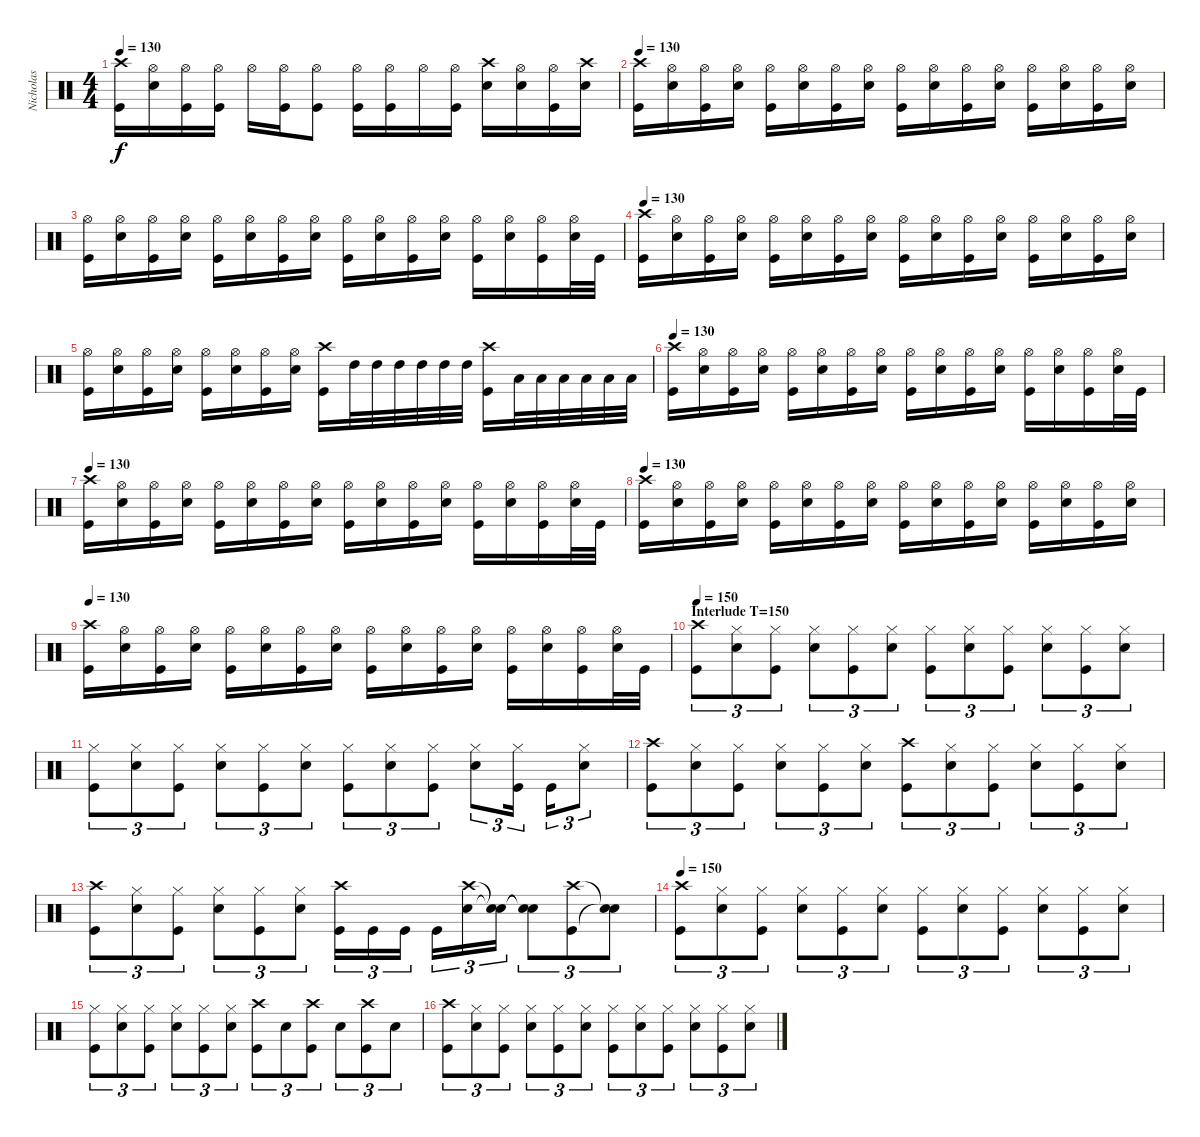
\track ("Nicholas" "Nicholas") {instrument percussion}
\staff {score}
\articulation defaults
\ts (4 4)
\tempo 130
\clef neutral
\ks c
("Crash high (hit)" "Kick (hit)").16{dy f} ("Hi-Hat (open)" "Electric Snare (hit)").16 ("Hi-Hat (open)" "Kick (hit)").16 ("Hi-Hat (open)" "Kick (hit)").16 "Hi-Hat (open)".16 ("Hi-Hat (open)" "Kick (hit)").16 ("Hi-Hat (open)" "Kick (hit)").8 ("Hi-Hat (open)" "Kick (hit)").16 ("Hi-Hat (open)" "Kick (hit)").16 "Hi-Hat (open)".16 ("Hi-Hat (open)" "Kick (hit)").16 ("Crash high (hit)" "Electric Snare (hit)").16 ("Hi-Hat (open)" "Electric Snare (hit)").16 ("Hi-Hat (open)" "Kick (hit)").16 ("Crash high (hit)" "Electric Snare (hit)").16 |
\tempo 130
("Crash high (hit)" "Kick (hit)").16 ("Hi-Hat (open)" "Electric Snare (hit)").16 ("Hi-Hat (open)" "Kick (hit)").16 ("Hi-Hat (open)" "Electric Snare (hit)").16 ("Hi-Hat (open)" "Kick (hit)").16 ("Hi-Hat (open)" "Electric Snare (hit)").16 ("Hi-Hat (open)" "Kick (hit)").16 ("Hi-Hat (open)" "Electric Snare (hit)").16 ("Hi-Hat (open)" "Kick (hit)").16 ("Hi-Hat (open)" "Electric Snare (hit)").16 ("Hi-Hat (open)" "Kick (hit)").16 ("Hi-Hat (open)" "Electric Snare (hit)").16 ("Hi-Hat (open)" "Kick (hit)").16 ("Hi-Hat (open)" "Electric Snare (hit)").16 ("Hi-Hat (open)" "Kick (hit)").16 ("Hi-Hat (open)" "Electric Snare (hit)").16 |
("Hi-Hat (open)" "Kick (hit)").16 ("Hi-Hat (open)" "Electric Snare (hit)").16 ("Hi-Hat (open)" "Kick (hit)").16 ("Hi-Hat (open)" "Electric Snare (hit)").16 ("Hi-Hat (open)" "Kick (hit)").16 ("Hi-Hat (open)" "Electric Snare (hit)").16 ("Hi-Hat (open)" "Kick (hit)").16 ("Hi-Hat (open)" "Electric Snare (hit)").16 ("Hi-Hat (open)" "Kick (hit)").16 ("Hi-Hat (open)" "Electric Snare (hit)").16 ("Hi-Hat (open)" "Kick (hit)").16 ("Hi-Hat (open)" "Electric Snare (hit)").16 ("Hi-Hat (open)" "Kick (hit)").16 ("Hi-Hat (open)" "Electric Snare (hit)").16 ("Hi-Hat (open)" "Kick (hit)").16 ("Hi-Hat (open)" "Electric Snare (hit)").32 "Kick (hit)".32 |
\tempo 130
("Crash high (hit)" "Kick (hit)").16 ("Hi-Hat (open)" "Electric Snare (hit)").16 ("Hi-Hat (open)" "Kick (hit)").16 ("Hi-Hat (open)" "Electric Snare (hit)").16 ("Hi-Hat (open)" "Kick (hit)").16 ("Hi-Hat (open)" "Electric Snare (hit)").16 ("Hi-Hat (open)" "Kick (hit)").16 ("Hi-Hat (open)" "Electric Snare (hit)").16 ("Hi-Hat (open)" "Kick (hit)").16 ("Hi-Hat (open)" "Electric Snare (hit)").16 ("Hi-Hat (open)" "Kick (hit)").16 ("Hi-Hat (open)" "Electric Snare (hit)").16 ("Hi-Hat (open)" "Kick (hit)").16 ("Hi-Hat (open)" "Electric Snare (hit)").16 ("Hi-Hat (open)" "Kick (hit)").16 ("Hi-Hat (open)" "Electric Snare (hit)").16 |
("Hi-Hat (open)" "Kick (hit)").16 ("Hi-Hat (open)" "Electric Snare (hit)").16 ("Hi-Hat (open)" "Kick (hit)").16 ("Hi-Hat (open)" "Electric Snare (hit)").16 ("Hi-Hat (open)" "Kick (hit)").16 ("Hi-Hat (open)" "Electric Snare (hit)").16 ("Hi-Hat (open)" "Kick (hit)").16 ("Hi-Hat (open)" "Electric Snare (hit)").16 ("Crash high (hit)" "Kick (hit)").16 "High Tom (hit)".32 "High Tom (hit)".32 "High Tom (hit)".32 "High Tom (hit)".32 "High Tom (hit)".32 "High Tom (hit)".32 ("Crash high (hit)" "Kick (hit)").16 "Low Tom (hit)".32 "Low Tom (hit)".32 "Low Tom (hit)".32 "Low Tom (hit)".32 "Low Tom (hit)".32 "Low Tom (hit)".32 |
\tempo 130
("Crash high (hit)" "Kick (hit)").16 ("Hi-Hat (open)" "Electric Snare (hit)").16 ("Hi-Hat (open)" "Kick (hit)").16 ("Hi-Hat (open)" "Electric Snare (hit)").16 ("Hi-Hat (open)" "Kick (hit)").16 ("Hi-Hat (open)" "Electric Snare (hit)").16 ("Hi-Hat (open)" "Kick (hit)").16 ("Hi-Hat (open)" "Electric Snare (hit)").16 ("Hi-Hat (open)" "Kick (hit)").16 ("Hi-Hat (open)" "Electric Snare (hit)").16 ("Hi-Hat (open)" "Kick (hit)").16 ("Hi-Hat (open)" "Electric Snare (hit)").16 ("Hi-Hat (open)" "Kick (hit)").16 ("Hi-Hat (open)" "Electric Snare (hit)").16 ("Hi-Hat (open)" "Kick (hit)").16 ("Hi-Hat (open)" "Electric Snare (hit)").32 "Kick (hit)".32 |
\tempo 130
("Crash high (hit)" "Kick (hit)").16 ("Hi-Hat (open)" "Electric Snare (hit)").16 ("Hi-Hat (open)" "Kick (hit)").16 ("Hi-Hat (open)" "Electric Snare (hit)").16 ("Hi-Hat (open)" "Kick (hit)").16 ("Hi-Hat (open)" "Electric Snare (hit)").16 ("Hi-Hat (open)" "Kick (hit)").16 ("Hi-Hat (open)" "Electric Snare (hit)").16 ("Hi-Hat (open)" "Kick (hit)").16 ("Hi-Hat (open)" "Electric Snare (hit)").16 ("Hi-Hat (open)" "Kick (hit)").16 ("Hi-Hat (open)" "Electric Snare (hit)").16 ("Hi-Hat (open)" "Kick (hit)").16 ("Hi-Hat (open)" "Electric Snare (hit)").16 ("Hi-Hat (open)" "Kick (hit)").16 ("Hi-Hat (open)" "Electric Snare (hit)").32 "Kick (hit)".32 |
\tempo 130
("Crash high (hit)" "Kick (hit)").16 ("Hi-Hat (open)" "Electric Snare (hit)").16 ("Hi-Hat (open)" "Kick (hit)").16 ("Hi-Hat (open)" "Electric Snare (hit)").16 ("Hi-Hat (open)" "Kick (hit)").16 ("Hi-Hat (open)" "Electric Snare (hit)").16 ("Hi-Hat (open)" "Kick (hit)").16 ("Hi-Hat (open)" "Electric Snare (hit)").16 ("Hi-Hat (open)" "Kick (hit)").16 ("Hi-Hat (open)" "Electric Snare (hit)").16 ("Hi-Hat (open)" "Kick (hit)").16 ("Hi-Hat (open)" "Electric Snare (hit)").16 ("Hi-Hat (open)" "Kick (hit)").16 ("Hi-Hat (open)" "Electric Snare (hit)").16 ("Hi-Hat (open)" "Kick (hit)").16 ("Hi-Hat (open)" "Electric Snare (hit)").16 |
\tempo 130
("Crash high (hit)" "Kick (hit)").16 ("Hi-Hat (open)" "Electric Snare (hit)").16 ("Hi-Hat (open)" "Kick (hit)").16 ("Hi-Hat (open)" "Electric Snare (hit)").16 ("Hi-Hat (open)" "Kick (hit)").16 ("Hi-Hat (open)" "Electric Snare (hit)").16 ("Hi-Hat (open)" "Kick (hit)").16 ("Hi-Hat (open)" "Electric Snare (hit)").16 ("Hi-Hat (open)" "Kick (hit)").16 ("Hi-Hat (open)" "Electric Snare (hit)").16 ("Hi-Hat (open)" "Kick (hit)").16 ("Hi-Hat (open)" "Electric Snare (hit)").16 ("Hi-Hat (open)" "Kick (hit)").16 ("Hi-Hat (open)" "Electric Snare (hit)").16 ("Hi-Hat (open)" "Kick (hit)").16 ("Hi-Hat (open)" "Electric Snare (hit)").32 "Kick (hit)".32 |
\section ("" "Interlude T=150")
\tempo 150
("Crash high (hit)" "Kick (hit)").8{tu (3 2)} ("Hi-Hat (closed)" "Electric Snare (hit)").8{tu (3 2)} ("Hi-Hat (closed)" "Kick (hit)").8{tu (3 2)} ("Hi-Hat (closed)" "Electric Snare (hit)").8{tu (3 2)} ("Hi-Hat (closed)" "Kick (hit)").8{tu (3 2)} ("Hi-Hat (closed)" "Electric Snare (hit)").8{tu (3 2)} ("Hi-Hat (closed)" "Kick (hit)").8{tu (3 2)} ("Hi-Hat (closed)" "Electric Snare (hit)").8{tu (3 2)} ("Hi-Hat (closed)" "Kick (hit)").8{tu (3 2)} ("Hi-Hat (closed)" "Electric Snare (hit)").8{tu (3 2)} ("Hi-Hat (closed)" "Kick (hit)").8{tu (3 2)} ("Hi-Hat (closed)" "Electric Snare (hit)").8{tu (3 2)} |
("Hi-Hat (closed)" "Kick (hit)").8{tu (3 2)} ("Hi-Hat (closed)" "Electric Snare (hit)").8{tu (3 2)} ("Hi-Hat (closed)" "Kick (hit)").8{tu (3 2)} ("Hi-Hat (closed)" "Electric Snare (hit)").8{tu (3 2)} ("Hi-Hat (closed)" "Kick (hit)").8{tu (3 2)} ("Hi-Hat (closed)" "Electric Snare (hit)").8{tu (3 2)} ("Hi-Hat (closed)" "Kick (hit)").8{tu (3 2)} ("Hi-Hat (closed)" "Electric Snare (hit)").8{tu (3 2)} ("Hi-Hat (closed)" "Kick (hit)").8{tu (3 2)} ("Hi-Hat (closed)" "Electric Snare (hit)").8{tu (3 2)} ("Hi-Hat (closed)" "Kick (hit)").16{tu (3 2)} "Kick (hit)".16{tu (3 2)} ("Hi-Hat (closed)" "Electric Snare (hit)").8{tu (3 2)} |
("Crash high (hit)" "Kick (hit)").8{tu (3 2)} ("Hi-Hat (closed)" "Electric Snare (hit)").8{tu (3 2)} ("Hi-Hat (closed)" "Kick (hit)").8{tu (3 2)} ("Hi-Hat (closed)" "Electric Snare (hit)").8{tu (3 2)} ("Hi-Hat (closed)" "Kick (hit)").8{tu (3 2)} ("Hi-Hat (closed)" "Electric Snare (hit)").8{tu (3 2)} ("Crash high (hit)" "Kick (hit)").8{tu (3 2)} ("Hi-Hat (closed)" "Electric Snare (hit)").8{tu (3 2)} ("Hi-Hat (closed)" "Kick (hit)").8{tu (3 2)} ("Hi-Hat (closed)" "Electric Snare (hit)").8{tu (3 2)} ("Hi-Hat (closed)" "Kick (hit)").8{tu (3 2)} ("Hi-Hat (closed)" "Electric Snare (hit)").8{tu (3 2)} |
("Crash high (hit)" "Kick (hit)").8{tu (3 2)} ("Hi-Hat (closed)" "Electric Snare (hit)").8{tu (3 2)} ("Hi-Hat (closed)" "Kick (hit)").8{tu (3 2)} ("Hi-Hat (closed)" "Electric Snare (hit)").8{tu (3 2)} ("Hi-Hat (closed)" "Kick (hit)").8{tu (3 2)} ("Hi-Hat (closed)" "Electric Snare (hit)").8{tu (3 2)} ("Crash high (hit)" "Kick (hit)").16{tu (3 2)} "Kick (hit)".16{tu (3 2)} "Kick (hit)".16{tu (3 2)} "Kick (hit)".16{tu (3 2)} ("Crash high (hit)" "Electric Snare (hit)").16{tu (3 2)} ("Snare (hit)"{t} "Snare (hit)"{t}).16{tu (3 2)} ("Snare (hit)"{t} "Snare (hit)"{t}).8{tu (3 2)} ("Crash high (hit)" "Kick (hit)").8{tu (3 2)} ("Snare (hit)"{t} "Snare (hit)"{t}).8{tu (3 2)} |
\tempo 150
("Crash high (hit)" "Kick (hit)").8{tu (3 2)} ("Hi-Hat (closed)" "Electric Snare (hit)").8{tu (3 2)} ("Hi-Hat (closed)" "Kick (hit)").8{tu (3 2)} ("Hi-Hat (closed)" "Electric Snare (hit)").8{tu (3 2)} ("Hi-Hat (closed)" "Kick (hit)").8{tu (3 2)} ("Hi-Hat (closed)" "Electric Snare (hit)").8{tu (3 2)} ("Hi-Hat (closed)" "Kick (hit)").8{tu (3 2)} ("Hi-Hat (closed)" "Electric Snare (hit)").8{tu (3 2)} ("Hi-Hat (closed)" "Kick (hit)").8{tu (3 2)} ("Hi-Hat (closed)" "Electric Snare (hit)").8{tu (3 2)} ("Hi-Hat (closed)" "Kick (hit)").8{tu (3 2)} ("Hi-Hat (closed)" "Electric Snare (hit)").8{tu (3 2)} |
("Hi-Hat (closed)" "Kick (hit)").8{tu (3 2)} ("Hi-Hat (closed)" "Electric Snare (hit)").8{tu (3 2)} ("Hi-Hat (closed)" "Kick (hit)").8{tu (3 2)} ("Hi-Hat (closed)" "Electric Snare (hit)").8{tu (3 2)} ("Hi-Hat (closed)" "Kick (hit)").8{tu (3 2)} ("Hi-Hat (closed)" "Electric Snare (hit)").8{tu (3 2)} ("Crash high (hit)" "Kick (hit)").8{tu (3 2)} "Electric Snare (hit)".8{tu (3 2)} ("Crash high (hit)" "Kick (hit)").8{tu (3 2)} "Electric Snare (hit)".8{tu (3 2)} ("Crash high (hit)" "Kick (hit)").8{tu (3 2)} "Electric Snare (hit)".8{tu (3 2)} |
("Crash high (hit)" "Kick (hit)").8{tu (3 2)} ("Hi-Hat (closed)" "Electric Snare (hit)").8{tu (3 2)} ("Hi-Hat (closed)" "Kick (hit)").8{tu (3 2)} ("Hi-Hat (closed)" "Electric Snare (hit)").8{tu (3 2)} ("Hi-Hat (closed)" "Kick (hit)").8{tu (3 2)} ("Hi-Hat (closed)" "Electric Snare (hit)").8{tu (3 2)} ("Hi-Hat (closed)" "Kick (hit)").8{tu (3 2)} ("Hi-Hat (closed)" "Electric Snare (hit)").8{tu (3 2)} ("Hi-Hat (closed)" "Kick (hit)").8{tu (3 2)} ("Hi-Hat (closed)" "Electric Snare (hit)").8{tu (3 2)} ("Hi-Hat (closed)" "Kick (hit)").8{tu (3 2)} ("Hi-Hat (closed)" "Electric Snare (hit)").8{tu (3 2)}
